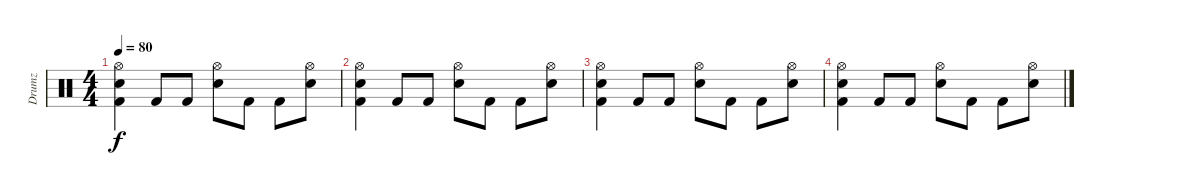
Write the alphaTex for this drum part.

\track ("Drumz" "Drumz") {instrument percussion}
\staff {score}
\articulation defaults
\ts (4 4)
\tempo 80
\clef neutral
\ks c
("Hi-Hat (open)" "Snare (hit) 2" "Kick (hit) 2").4{dy f} "Kick (hit) 2".8 "Kick (hit) 2".8 ("Hi-Hat (open)" "Snare (hit) 2").8 "Kick (hit) 2".8 "Kick (hit) 2".8 ("Hi-Hat (open)" "Snare (hit) 2").8 |
("Hi-Hat (open)" "Snare (hit) 2" "Kick (hit) 2").4 "Kick (hit) 2".8 "Kick (hit) 2".8 ("Hi-Hat (open)" "Snare (hit) 2").8 "Kick (hit) 2".8 "Kick (hit) 2".8 ("Hi-Hat (open)" "Snare (hit) 2").8 |
("Hi-Hat (open)" "Snare (hit) 2" "Kick (hit) 2").4 "Kick (hit) 2".8 "Kick (hit) 2".8 ("Hi-Hat (open)" "Snare (hit) 2").8 "Kick (hit) 2".8 "Kick (hit) 2".8 ("Hi-Hat (open)" "Snare (hit) 2").8 |
("Hi-Hat (open)" "Snare (hit) 2" "Kick (hit) 2").4 "Kick (hit) 2".8 "Kick (hit) 2".8 ("Hi-Hat (open)" "Snare (hit) 2").8 "Kick (hit) 2".8 "Kick (hit) 2".8 ("Hi-Hat (open)" "Snare (hit) 2").8
